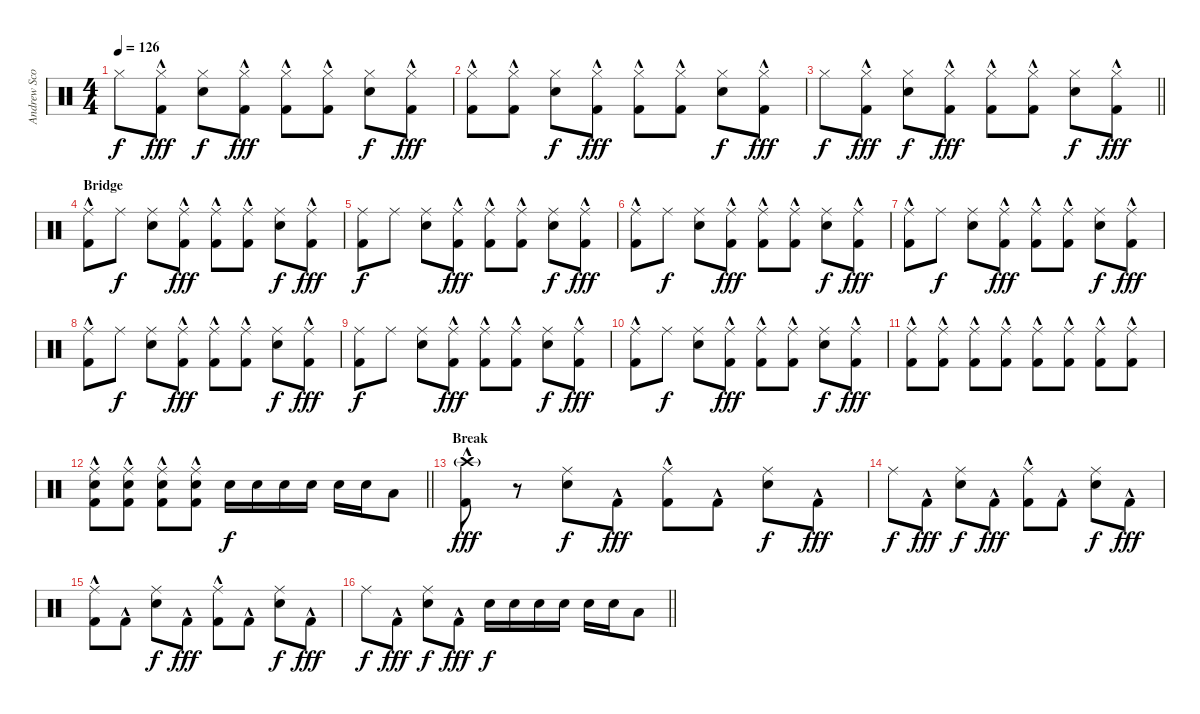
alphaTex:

\track ("Andrew Scott" "Andrew Sco") {instrument percussion}
\staff {score}
\articulation defaults
\ts (4 4)
\tempo 126
\clef neutral
\ks c "Hi-Hat (closed)".8{dy f}
("Hi-Hat (closed)" "Kick (hit) 2"{hac}).8{dy fff} ("Hi-Hat (closed)" "Snare (hit) 2").8{dy f} ("Hi-Hat (closed)" "Kick (hit) 2"{hac}).8{dy fff} ("Hi-Hat (closed)" "Kick (hit) 2"{hac}).8 ("Hi-Hat (closed)" "Kick (hit) 2"{hac}).8 ("Hi-Hat (closed)" "Snare (hit) 2").8{dy f} ("Hi-Hat (closed)" "Kick (hit) 2"{hac}).8{dy fff} |
("Hi-Hat (closed)" "Kick (hit) 2"{hac}).8 ("Hi-Hat (closed)" "Kick (hit) 2"{hac}).8 ("Hi-Hat (closed)" "Snare (hit) 2").8{dy f} ("Hi-Hat (closed)" "Kick (hit) 2"{hac}).8{dy fff} ("Hi-Hat (closed)" "Kick (hit) 2"{hac}).8 ("Hi-Hat (closed)" "Kick (hit) 2"{hac}).8 ("Hi-Hat (closed)" "Snare (hit) 2").8{dy f} ("Hi-Hat (closed)" "Kick (hit) 2"{hac}).8{dy fff} |
\barLineRight lightlight "Hi-Hat (closed)".8{dy f}
("Hi-Hat (closed)" "Kick (hit) 2"{hac}).8{dy fff} ("Hi-Hat (closed)" "Snare (hit) 2").8{dy f} ("Hi-Hat (closed)" "Kick (hit) 2"{hac}).8{dy fff} ("Hi-Hat (closed)" "Kick (hit) 2"{hac}).8 ("Hi-Hat (closed)" "Kick (hit) 2"{hac}).8 ("Hi-Hat (closed)" "Snare (hit) 2").8{dy f} ("Hi-Hat (closed)" "Kick (hit) 2"{hac}).8{dy fff} |
\section ("" "Bridge")
("Ride (middle)" "Kick (hit) 2"{hac}).8 "Ride (middle)".8{dy f} ("Ride (middle)" "Snare (hit) 2").8 ("Ride (middle)" "Kick (hit) 2"{hac}).8{dy fff} ("Ride (middle)" "Kick (hit) 2"{hac}).8 ("Ride (middle)" "Kick (hit) 2"{hac}).8 ("Ride (middle)" "Snare (hit) 2").8{dy f} ("Ride (middle)" "Kick (hit) 2"{hac}).8{dy fff} |
("Ride (middle)" "Kick (hit) 2").8{dy f} "Ride (middle)".8 ("Ride (middle)" "Snare (hit) 2").8 ("Ride (middle)" "Kick (hit) 2"{hac}).8{dy fff} ("Ride (middle)" "Kick (hit) 2"{hac}).8 ("Ride (middle)" "Kick (hit) 2"{hac}).8 ("Ride (middle)" "Snare (hit) 2").8{dy f} ("Ride (middle)" "Kick (hit) 2"{hac}).8{dy fff} |
("Ride (middle)" "Kick (hit) 2"{hac}).8 "Ride (middle)".8{dy f} ("Ride (middle)" "Snare (hit) 2").8 ("Ride (middle)" "Kick (hit) 2"{hac}).8{dy fff} ("Ride (middle)" "Kick (hit) 2"{hac}).8 ("Ride (middle)" "Kick (hit) 2"{hac}).8 ("Ride (middle)" "Snare (hit) 2").8{dy f} ("Ride (middle)" "Kick (hit) 2"{hac}).8{dy fff} |
("Ride (middle)" "Kick (hit) 2"{hac}).8 "Ride (middle)".8{dy f} ("Ride (middle)" "Snare (hit) 2").8 ("Ride (middle)" "Kick (hit) 2"{hac}).8{dy fff} ("Ride (middle)" "Kick (hit) 2"{hac}).8 ("Ride (middle)" "Kick (hit) 2"{hac}).8 ("Ride (middle)" "Snare (hit) 2").8{dy f} ("Ride (middle)" "Kick (hit) 2"{hac}).8{dy fff} |
("Ride (middle)" "Kick (hit) 2"{hac}).8 "Ride (middle)".8{dy f} ("Ride (middle)" "Snare (hit) 2").8 ("Ride (middle)" "Kick (hit) 2"{hac}).8{dy fff} ("Ride (middle)" "Kick (hit) 2"{hac}).8 ("Ride (middle)" "Kick (hit) 2"{hac}).8 ("Ride (middle)" "Snare (hit) 2").8{dy f} ("Ride (middle)" "Kick (hit) 2"{hac}).8{dy fff} |
("Ride (middle)" "Kick (hit) 2").8{dy f} "Ride (middle)".8 ("Ride (middle)" "Snare (hit) 2").8 ("Ride (middle)" "Kick (hit) 2"{hac}).8{dy fff} ("Ride (middle)" "Kick (hit) 2"{hac}).8 ("Ride (middle)" "Kick (hit) 2"{hac}).8 ("Ride (middle)" "Snare (hit) 2").8{dy f} ("Ride (middle)" "Kick (hit) 2"{hac}).8{dy fff} |
("Ride (middle)" "Kick (hit) 2"{hac}).8 "Ride (middle)".8{dy f} ("Ride (middle)" "Snare (hit) 2").8 ("Ride (middle)" "Kick (hit) 2"{hac}).8{dy fff} ("Ride (middle)" "Kick (hit) 2"{hac}).8 ("Ride (middle)" "Kick (hit) 2"{hac}).8 ("Ride (middle)" "Snare (hit) 2").8{dy f} ("Ride (middle)" "Kick (hit) 2"{hac}).8{dy fff} |
("Ride (middle)" "Kick (hit) 2"{hac}).8 ("Ride (middle)" "Kick (hit) 2"{hac}).8 ("Ride (middle)" "Kick (hit) 2"{hac}).8 ("Ride (middle)" "Kick (hit) 2"{hac}).8 ("Ride (middle)" "Kick (hit) 2"{hac}).8 ("Ride (middle)" "Kick (hit) 2"{hac}).8 ("Ride (middle)" "Kick (hit) 2"{hac}).8 ("Ride (middle)" "Kick (hit) 2"{hac}).8 |
\barLineRight lightlight
("Ride (middle)" "Snare (hit) 2" "Kick (hit) 2"{hac}).8 ("Ride (middle)" "Snare (hit) 2" "Kick (hit) 2"{hac}).8 ("Ride (middle)" "Snare (hit) 2" "Kick (hit) 2"{hac}).8 ("Ride (middle)" "Snare (hit) 2" "Kick (hit) 2"{hac}).8 "Snare (hit) 2".16{dy f} "Snare (hit) 2".16 "Snare (hit) 2".16 "Snare (hit) 2".16 "Snare (hit) 2".16 "Snare (hit) 2".16 "Low Tom (hit)".8 |
\section ("" "Break")
("Crash high (hit)"{g} "Kick (hit) 2"{hac}).8{dy fff} r.8 ("Ride (middle)" "Snare (hit) 2").8{dy f} "Kick (hit) 2"{hac}.8{dy fff} ("Ride (middle)" "Kick (hit) 2"{hac}).8 "Kick (hit) 2"{hac}.8 ("Ride (middle)" "Snare (hit) 2").8{dy f} "Kick (hit) 2"{hac}.8{dy fff} |
"Ride (middle)".8{dy f} "Kick (hit) 2"{hac}.8{dy fff} ("Ride (middle)" "Snare (hit) 2").8{dy f} "Kick (hit) 2"{hac}.8{dy fff} ("Ride (middle)" "Kick (hit) 2"{hac}).8 "Kick (hit) 2"{hac}.8 ("Ride (middle)" "Snare (hit) 2").8{dy f} "Kick (hit) 2"{hac}.8{dy fff} |
("Ride (middle)" "Kick (hit) 2"{hac}).8 "Kick (hit) 2"{hac}.8 ("Ride (middle)" "Snare (hit) 2").8{dy f} "Kick (hit) 2"{hac}.8{dy fff} ("Ride (middle)" "Kick (hit) 2"{hac}).8 "Kick (hit) 2"{hac}.8 ("Ride (middle)" "Snare (hit) 2").8{dy f} "Kick (hit) 2"{hac}.8{dy fff} |
\barLineRight lightlight "Ride (middle)".8{dy f} "Kick (hit) 2"{hac}.8{dy fff}
("Ride (middle)" "Snare (hit) 2").8{dy f} "Kick (hit) 2"{hac}.8{dy fff} "Snare (hit) 2".16{dy f volume 5} "Snare (hit) 2".16{volume 10} "Snare (hit) 2".16 "Snare (hit) 2".16 "Snare (hit) 2".16 "Snare (hit) 2".16 "Low Tom (hit)".8
